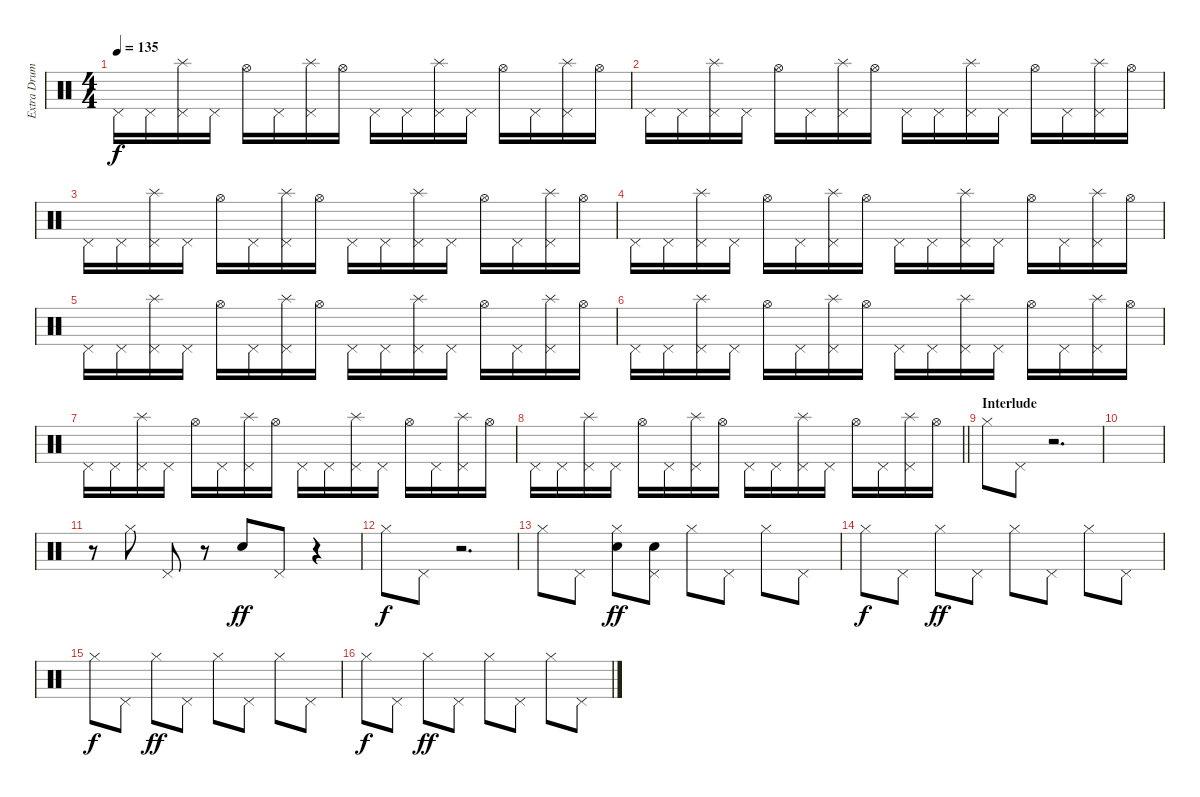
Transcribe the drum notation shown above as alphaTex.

\track ("Extra Drums" "Extra Drum") {instrument percussion}
\staff {score}
\articulation defaults
\ts (4 4)
\tempo 135
\clef neutral
\ks c "Pedal Hi-Hat (hit)".16{dy f} "Pedal Hi-Hat (hit)".16
("Pedal Hi-Hat (hit)" "Splash (hit)").16 "Pedal Hi-Hat (hit)".16 "Hi-Hat (open)".16 "Pedal Hi-Hat (hit)".16 ("Pedal Hi-Hat (hit)" "Splash (hit)").16 "Hi-Hat (open)".16 "Pedal Hi-Hat (hit)".16 "Pedal Hi-Hat (hit)".16 ("Pedal Hi-Hat (hit)" "Splash (hit)").16 "Pedal Hi-Hat (hit)".16 "Hi-Hat (open)".16 "Pedal Hi-Hat (hit)".16 ("Pedal Hi-Hat (hit)" "Splash (hit)").16 "Hi-Hat (open)".16 |
"Pedal Hi-Hat (hit)".16 "Pedal Hi-Hat (hit)".16 ("Pedal Hi-Hat (hit)" "Splash (hit)").16 "Pedal Hi-Hat (hit)".16 "Hi-Hat (open)".16 "Pedal Hi-Hat (hit)".16 ("Pedal Hi-Hat (hit)" "Splash (hit)").16 "Hi-Hat (open)".16 "Pedal Hi-Hat (hit)".16 "Pedal Hi-Hat (hit)".16 ("Pedal Hi-Hat (hit)" "Splash (hit)").16 "Pedal Hi-Hat (hit)".16 "Hi-Hat (open)".16 "Pedal Hi-Hat (hit)".16 ("Pedal Hi-Hat (hit)" "Splash (hit)").16 "Hi-Hat (open)".16 |
"Pedal Hi-Hat (hit)".16 "Pedal Hi-Hat (hit)".16 ("Pedal Hi-Hat (hit)" "Splash (hit)").16 "Pedal Hi-Hat (hit)".16 "Hi-Hat (open)".16 "Pedal Hi-Hat (hit)".16 ("Pedal Hi-Hat (hit)" "Splash (hit)").16 "Hi-Hat (open)".16 "Pedal Hi-Hat (hit)".16 "Pedal Hi-Hat (hit)".16 ("Pedal Hi-Hat (hit)" "Splash (hit)").16 "Pedal Hi-Hat (hit)".16 "Hi-Hat (open)".16 "Pedal Hi-Hat (hit)".16 ("Pedal Hi-Hat (hit)" "Splash (hit)").16 "Hi-Hat (open)".16 |
"Pedal Hi-Hat (hit)".16 "Pedal Hi-Hat (hit)".16 ("Pedal Hi-Hat (hit)" "Splash (hit)").16 "Pedal Hi-Hat (hit)".16 "Hi-Hat (open)".16 "Pedal Hi-Hat (hit)".16 ("Pedal Hi-Hat (hit)" "Splash (hit)").16 "Hi-Hat (open)".16 "Pedal Hi-Hat (hit)".16 "Pedal Hi-Hat (hit)".16 ("Pedal Hi-Hat (hit)" "Splash (hit)").16 "Pedal Hi-Hat (hit)".16 "Hi-Hat (open)".16 "Pedal Hi-Hat (hit)".16 ("Pedal Hi-Hat (hit)" "Splash (hit)").16 "Hi-Hat (open)".16 |
"Pedal Hi-Hat (hit)".16 "Pedal Hi-Hat (hit)".16 ("Pedal Hi-Hat (hit)" "Splash (hit)").16 "Pedal Hi-Hat (hit)".16 "Hi-Hat (open)".16 "Pedal Hi-Hat (hit)".16 ("Pedal Hi-Hat (hit)" "Splash (hit)").16 "Hi-Hat (open)".16 "Pedal Hi-Hat (hit)".16 "Pedal Hi-Hat (hit)".16 ("Pedal Hi-Hat (hit)" "Splash (hit)").16 "Pedal Hi-Hat (hit)".16 "Hi-Hat (open)".16 "Pedal Hi-Hat (hit)".16 ("Pedal Hi-Hat (hit)" "Splash (hit)").16 "Hi-Hat (open)".16 |
"Pedal Hi-Hat (hit)".16 "Pedal Hi-Hat (hit)".16 ("Pedal Hi-Hat (hit)" "Splash (hit)").16 "Pedal Hi-Hat (hit)".16 "Hi-Hat (open)".16 "Pedal Hi-Hat (hit)".16 ("Pedal Hi-Hat (hit)" "Splash (hit)").16 "Hi-Hat (open)".16 "Pedal Hi-Hat (hit)".16 "Pedal Hi-Hat (hit)".16 ("Pedal Hi-Hat (hit)" "Splash (hit)").16 "Pedal Hi-Hat (hit)".16 "Hi-Hat (open)".16 "Pedal Hi-Hat (hit)".16 ("Pedal Hi-Hat (hit)" "Splash (hit)").16 "Hi-Hat (open)".16 |
"Pedal Hi-Hat (hit)".16 "Pedal Hi-Hat (hit)".16 ("Pedal Hi-Hat (hit)" "Splash (hit)").16 "Pedal Hi-Hat (hit)".16 "Hi-Hat (open)".16 "Pedal Hi-Hat (hit)".16 ("Pedal Hi-Hat (hit)" "Splash (hit)").16 "Hi-Hat (open)".16 "Pedal Hi-Hat (hit)".16 "Pedal Hi-Hat (hit)".16 ("Pedal Hi-Hat (hit)" "Splash (hit)").16 "Pedal Hi-Hat (hit)".16 "Hi-Hat (open)".16 "Pedal Hi-Hat (hit)".16 ("Pedal Hi-Hat (hit)" "Splash (hit)").16 "Hi-Hat (open)".16 |
\barLineRight lightlight "Pedal Hi-Hat (hit)".16 "Pedal Hi-Hat (hit)".16
("Pedal Hi-Hat (hit)" "Splash (hit)").16 "Pedal Hi-Hat (hit)".16 "Hi-Hat (open)".16 "Pedal Hi-Hat (hit)".16 ("Pedal Hi-Hat (hit)" "Splash (hit)").16 "Hi-Hat (open)".16 "Pedal Hi-Hat (hit)".16 "Pedal Hi-Hat (hit)".16 ("Pedal Hi-Hat (hit)" "Splash (hit)").16 "Pedal Hi-Hat (hit)".16 "Hi-Hat (open)".16 "Pedal Hi-Hat (hit)".16 ("Pedal Hi-Hat (hit)" "Splash (hit)").16 "Hi-Hat (open)".16 |
\section ("" "Interlude")
"Hi-Hat (closed)".8 "Pedal Hi-Hat (hit)".8 r.2{d} |
|
r.8 "Hi-Hat (closed)".8 "Pedal Hi-Hat (hit)".8 r.8 "Electric Snare (hit)".8{dy ff} "Pedal Hi-Hat (hit)".8 r.4 |
"Hi-Hat (closed)".8{dy f} "Pedal Hi-Hat (hit)".8 r.2{d} |
"Hi-Hat (closed)".8 "Pedal Hi-Hat (hit)".8 ("Hi-Hat (closed)" "Snare (hit) 2").8{dy ff} ("Snare (hit) 2" "Pedal Hi-Hat (hit)").8 "Hi-Hat (closed)".8 "Pedal Hi-Hat (hit)".8 "Hi-Hat (closed)".8 "Pedal Hi-Hat (hit)".8 |
"Hi-Hat (closed)".8{dy f} "Pedal Hi-Hat (hit)".8 "Hi-Hat (closed)".8{dy ff} "Pedal Hi-Hat (hit)".8 "Hi-Hat (closed)".8 "Pedal Hi-Hat (hit)".8 "Hi-Hat (closed)".8 "Pedal Hi-Hat (hit)".8 |
"Hi-Hat (closed)".8{dy f} "Pedal Hi-Hat (hit)".8 "Hi-Hat (closed)".8{dy ff} "Pedal Hi-Hat (hit)".8 "Hi-Hat (closed)".8 "Pedal Hi-Hat (hit)".8 "Hi-Hat (closed)".8 "Pedal Hi-Hat (hit)".8 |
"Hi-Hat (closed)".8{dy f} "Pedal Hi-Hat (hit)".8 "Hi-Hat (closed)".8{dy ff} "Pedal Hi-Hat (hit)".8 "Hi-Hat (closed)".8 "Pedal Hi-Hat (hit)".8 "Hi-Hat (closed)".8 "Pedal Hi-Hat (hit)".8
